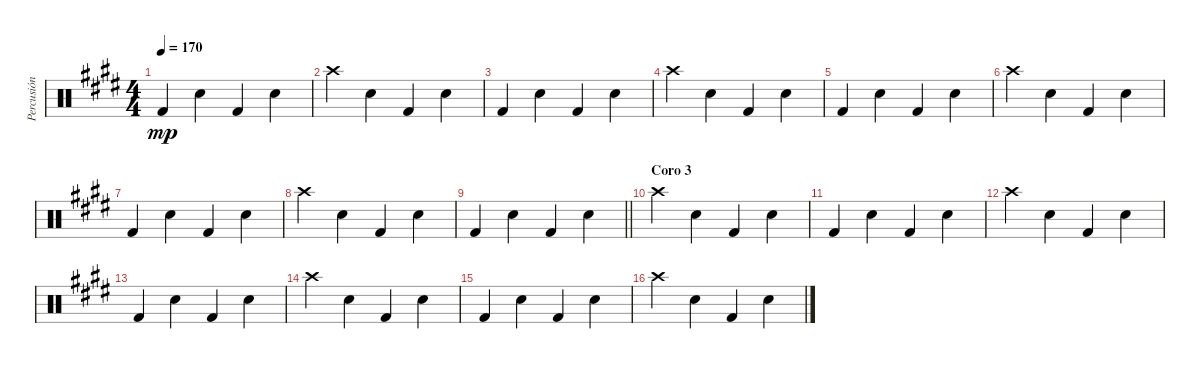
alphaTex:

\track ("Percusión" "Percusión") {instrument percussion}
\staff {score}
\articulation defaults
\ts (4 4)
\tempo 170
\clef neutral
\ks e "Kick (hit) 2".4{dy mp} "Snare (hit) 2".4 "Kick (hit) 2".4 "Snare (hit) 2".4
|
"Crash high (hit)".4 "Snare (hit) 2".4 "Kick (hit) 2".4 "Snare (hit) 2".4 |
"Kick (hit) 2".4 "Snare (hit) 2".4 "Kick (hit) 2".4 "Snare (hit) 2".4 |
"Crash high (hit)".4 "Snare (hit) 2".4 "Kick (hit) 2".4 "Snare (hit) 2".4 |
"Kick (hit) 2".4 "Snare (hit) 2".4 "Kick (hit) 2".4 "Snare (hit) 2".4 |
"Crash high (hit)".4 "Snare (hit) 2".4 "Kick (hit) 2".4 "Snare (hit) 2".4 |
"Kick (hit) 2".4 "Snare (hit) 2".4 "Kick (hit) 2".4 "Snare (hit) 2".4 |
"Crash high (hit)".4 "Snare (hit) 2".4 "Kick (hit) 2".4 "Snare (hit) 2".4 |
\barLineRight lightlight "Kick (hit) 2".4 "Snare (hit) 2".4 "Kick (hit) 2".4 "Snare (hit) 2".4
|
\section ("" "Coro 3")
"Crash high (hit)".4 "Snare (hit) 2".4 "Kick (hit) 2".4 "Snare (hit) 2".4 |
"Kick (hit) 2".4 "Snare (hit) 2".4 "Kick (hit) 2".4 "Snare (hit) 2".4 |
"Crash high (hit)".4 "Snare (hit) 2".4 "Kick (hit) 2".4 "Snare (hit) 2".4 |
"Kick (hit) 2".4 "Snare (hit) 2".4 "Kick (hit) 2".4 "Snare (hit) 2".4 |
"Crash high (hit)".4 "Snare (hit) 2".4 "Kick (hit) 2".4 "Snare (hit) 2".4 |
"Kick (hit) 2".4 "Snare (hit) 2".4 "Kick (hit) 2".4 "Snare (hit) 2".4 |
"Crash high (hit)".4 "Snare (hit) 2".4 "Kick (hit) 2".4 "Snare (hit) 2".4
